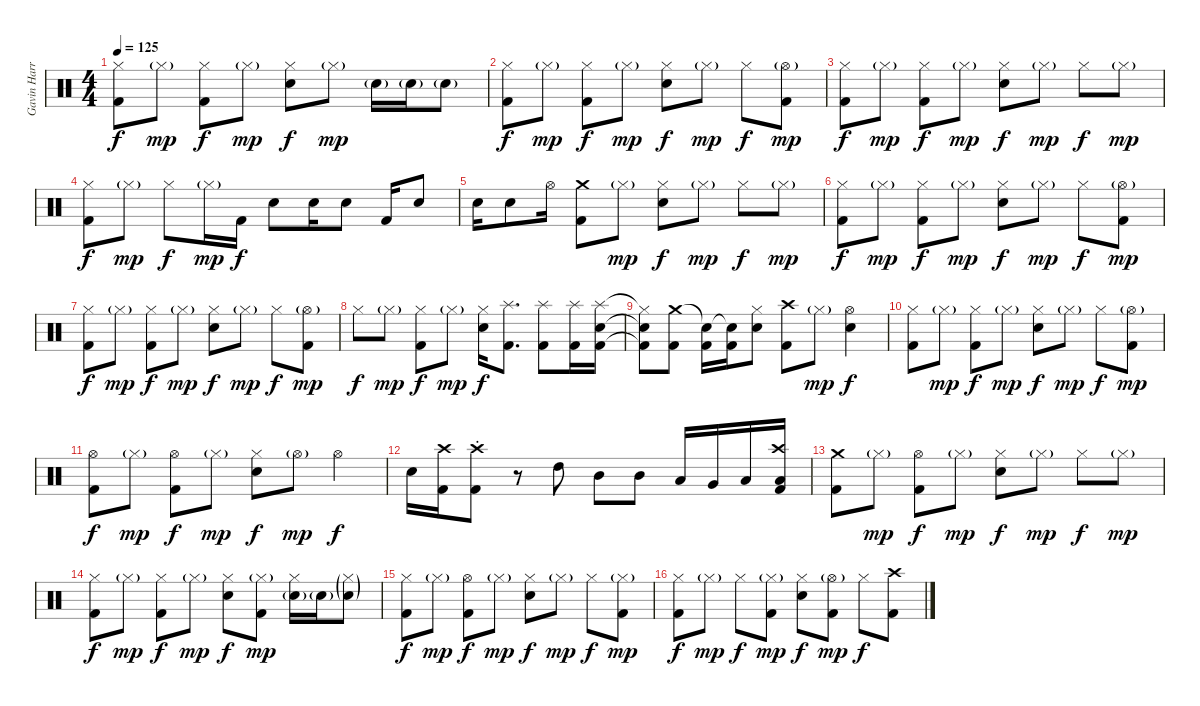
\track ("Gavin Harrison" "Gavin Harr") {instrument percussion}
\staff {score}
\articulation defaults
\ts (4 4)
\tempo 125
\clef neutral
\ks c
("Hi-Hat (closed)" "Kick (hit) 2").8{dy f} "Hi-Hat (closed)"{g}.8{dy mp} ("Hi-Hat (closed)" "Kick (hit) 2").8{dy f} "Hi-Hat (closed)"{g}.8{dy mp} ("Hi-Hat (closed)" "Electric Snare (hit)").8{dy f} "Hi-Hat (closed)"{g}.8{dy mp} "Electric Snare (hit)"{g}.16 "Electric Snare (hit)"{g}.16 "Electric Snare (hit)"{g}.8 |
("Hi-Hat (closed)" "Kick (hit) 2").8{dy f} "Hi-Hat (closed)"{g}.8{dy mp} ("Hi-Hat (closed)" "Kick (hit) 2").8{dy f} "Hi-Hat (closed)"{g}.8{dy mp} ("Hi-Hat (closed)" "Electric Snare (hit)").8{dy f} "Hi-Hat (closed)"{g}.8{dy mp} "Hi-Hat (closed)".8{dy f} ("Hi-Hat (open)"{g} "Kick (hit) 2").8{dy mp} |
("Hi-Hat (closed)" "Kick (hit) 2").8{dy f} "Hi-Hat (closed)"{g}.8{dy mp} ("Hi-Hat (closed)" "Kick (hit) 2").8{dy f} "Hi-Hat (closed)"{g}.8{dy mp} ("Hi-Hat (closed)" "Electric Snare (hit)").8{dy f} "Hi-Hat (closed)"{g}.8{dy mp} "Hi-Hat (closed)".8{dy f} "Hi-Hat (closed)"{g}.8{dy mp} |
("Hi-Hat (closed)" "Kick (hit) 2").8{dy f} "Hi-Hat (closed)"{g}.8{dy mp} "Hi-Hat (closed)".8{dy f} "Hi-Hat (closed)"{g}.16{dy mp} "Kick (hit) 2".16{dy f} "Electric Snare (hit)".8 "Electric Snare (hit)".16 "Electric Snare (hit)".8 "Kick (hit) 2".16 "Electric Snare (hit)".8 |
"Electric Snare (hit)".16 "Electric Snare (hit)".8 "Hi-Hat (open)".16 ("Crash medium (hit)" "Kick (hit) 2").8 "Hi-Hat (closed)"{g}.8{dy mp} ("Hi-Hat (closed)" "Electric Snare (hit)").8{dy f} "Hi-Hat (closed)"{g}.8{dy mp} "Hi-Hat (closed)".8{dy f} "Hi-Hat (closed)"{g}.8{dy mp} |
("Hi-Hat (closed)" "Kick (hit) 2").8{dy f} "Hi-Hat (closed)"{g}.8{dy mp} ("Hi-Hat (closed)" "Kick (hit) 2").8{dy f} "Hi-Hat (closed)"{g}.8{dy mp} ("Hi-Hat (closed)" "Electric Snare (hit)").8{dy f} "Hi-Hat (closed)"{g}.8{dy mp} "Hi-Hat (closed)".8{dy f} ("Hi-Hat (open)"{g} "Kick (hit) 2").8{dy mp} |
("Hi-Hat (closed)" "Kick (hit) 2").8{dy f} "Hi-Hat (closed)"{g}.8{dy mp} ("Hi-Hat (closed)" "Kick (hit) 2").8{dy f} "Hi-Hat (closed)"{g}.8{dy mp} ("Hi-Hat (closed)" "Electric Snare (hit)").8{dy f} "Hi-Hat (closed)"{g}.8{dy mp} "Hi-Hat (closed)".8{dy f} ("Hi-Hat (open)"{g} "Kick (hit) 2").8{dy mp} |
"Hi-Hat (closed)".8{dy f} "Hi-Hat (closed)"{g}.8{dy mp} ("Hi-Hat (closed)" "Kick (hit) 2").8{dy f} "Hi-Hat (closed)"{g}.8{dy mp} ("Hi-Hat (closed)" "Electric Snare (hit)").16{dy f} ("Splash (hit)" "Kick (hit) 2").8{d} ("Splash (hit)" "Kick (hit) 2").8 ("Splash (hit)" "Kick (hit) 2").16 ("Splash (hit)" "Electric Snare (hit)" "Kick (hit) 2").16 |
("Hi-Hat (closed)"{t} "Snare (hit)"{t} "Kick (hit) 2"{t}).8 ("Crash medium (hit)" "Kick (hit) 2").8 ("Snare (hit)"{t} "Kick (hit) 2").16 ("Snare (hit)"{t} "Kick (hit) 2").16 ("Hi-Hat (closed)" "Electric Snare (hit)").8 ("Crash high (hit)" "Kick (hit) 2").8 "Hi-Hat (closed)"{g}.8{dy mp} ("Hi-Hat (open)" "Electric Snare (hit)").4{dy f} |
("Hi-Hat (closed)" "Kick (hit) 2").8 "Hi-Hat (closed)"{g}.8{dy mp} ("Hi-Hat (closed)" "Kick (hit) 2").8{dy f} "Hi-Hat (closed)"{g}.8{dy mp} ("Hi-Hat (closed)" "Electric Snare (hit)").8{dy f} "Hi-Hat (closed)"{g}.8{dy mp} "Hi-Hat (closed)".8{dy f} ("Hi-Hat (open)"{g} "Kick (hit) 2").8{dy mp} |
("Hi-Hat (open)" "Kick (hit) 2").8{dy f} "Hi-Hat (closed)"{g}.8{dy mp} ("Hi-Hat (open)" "Kick (hit) 2").8{dy f} "Hi-Hat (closed)"{g}.8{dy mp} ("Hi-Hat (closed)" "Electric Snare (hit)").8{dy f} "Hi-Hat (open)"{g}.8{dy mp} "Hi-Hat (open)".4{dy f} |
"Electric Snare (hit)".16 ("Crash high (hit)" "Kick (hit) 2").16 ("Crash high (hit)"{st} "Kick (hit) 2").8 r.8 "High Tom (hit)".8 "Mid Tom (hit)".8 "Mid Tom (hit)".8 "Low Tom (hit)".16 "Very Low Tom (hit)".16 "Low Floor Tom (hit)".16 ("Crash high (hit)" "Low Floor Tom (hit)" "Kick (hit) 2").16 |
("Crash medium (hit)" "Kick (hit) 2").8 "Hi-Hat (closed)"{g}.8{dy mp} ("Hi-Hat (open)" "Kick (hit) 2").8{dy f} "Hi-Hat (closed)"{g}.8{dy mp} ("Hi-Hat (closed)" "Electric Snare (hit)").8{dy f} "Hi-Hat (closed)"{g}.8{dy mp} "Hi-Hat (closed)".8{dy f} "Hi-Hat (closed)"{g}.8{dy mp} |
("Hi-Hat (closed)" "Kick (hit) 2").8{dy f} "Hi-Hat (closed)"{g}.8{dy mp} ("Hi-Hat (closed)" "Kick (hit) 2").8{dy f} "Hi-Hat (closed)"{g}.8{dy mp} ("Hi-Hat (closed)" "Electric Snare (hit)").8{dy f} ("Hi-Hat (closed)"{g} "Kick (hit) 2").8{dy mp} ("Hi-Hat (closed)" "Electric Snare (hit)"{g}).16 "Electric Snare (hit)"{g}.16 ("Hi-Hat (closed)"{g} "Electric Snare (hit)"{g}).8 |
("Hi-Hat (closed)" "Kick (hit) 2").8{dy f} "Hi-Hat (closed)"{g}.8{dy mp} ("Hi-Hat (open)" "Kick (hit) 2").8{dy f} "Hi-Hat (closed)"{g}.8{dy mp} ("Hi-Hat (closed)" "Electric Snare (hit)").8{dy f} "Hi-Hat (closed)"{g}.8{dy mp} "Hi-Hat (closed)".8{dy f} ("Hi-Hat (closed)"{g} "Kick (hit) 2").8{dy mp} |
("Hi-Hat (closed)" "Kick (hit) 2").8{dy f} "Hi-Hat (closed)"{g}.8{dy mp} "Hi-Hat (closed)".8{dy f} ("Hi-Hat (closed)"{g} "Kick (hit) 2").8{dy mp} ("Hi-Hat (closed)" "Electric Snare (hit)").8{dy f} ("Hi-Hat (open)"{g} "Kick (hit) 2").8{dy mp} "Hi-Hat (closed)".8{dy f} ("Crash high (hit)" "Kick (hit) 2").8
